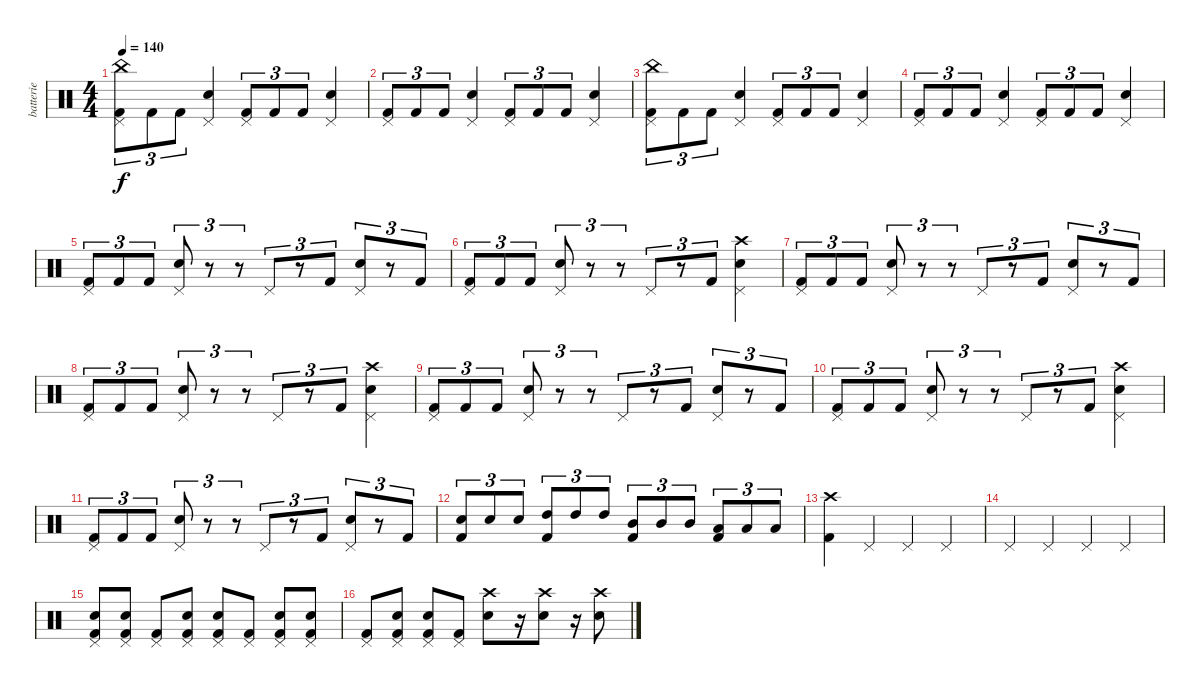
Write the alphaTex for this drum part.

\track ("batterie" "batterie") {instrument percussion}
\staff {score}
\articulation defaults
\ts (4 4)
\tempo 140
\clef neutral
\ks c
("China (hit)" "Kick (hit) 2" "Pedal Hi-Hat (hit)").8{tu (3 2) dy f} "Kick (hit) 2".8{tu (3 2)} "Kick (hit) 2".8{tu (3 2)} ("Snare (hit) 2" "Pedal Hi-Hat (hit)").4 ("Kick (hit) 2" "Pedal Hi-Hat (hit)").8{tu (3 2)} "Kick (hit) 2".8{tu (3 2)} "Kick (hit) 2".8{tu (3 2)} ("Snare (hit) 2" "Pedal Hi-Hat (hit)").4 |
("Kick (hit) 2" "Pedal Hi-Hat (hit)").8{tu (3 2)} "Kick (hit) 2".8{tu (3 2)} "Kick (hit) 2".8{tu (3 2)} ("Snare (hit) 2" "Pedal Hi-Hat (hit)").4 ("Kick (hit) 2" "Pedal Hi-Hat (hit)").8{tu (3 2)} "Kick (hit) 2".8{tu (3 2)} "Kick (hit) 2".8{tu (3 2)} ("Snare (hit) 2" "Pedal Hi-Hat (hit)").4 |
("China (hit)" "Kick (hit) 2" "Pedal Hi-Hat (hit)").8{tu (3 2)} "Kick (hit) 2".8{tu (3 2)} "Kick (hit) 2".8{tu (3 2)} ("Snare (hit) 2" "Pedal Hi-Hat (hit)").4 ("Kick (hit) 2" "Pedal Hi-Hat (hit)").8{tu (3 2)} "Kick (hit) 2".8{tu (3 2)} "Kick (hit) 2".8{tu (3 2)} ("Snare (hit) 2" "Pedal Hi-Hat (hit)").4 |
("Kick (hit) 2" "Pedal Hi-Hat (hit)").8{tu (3 2)} "Kick (hit) 2".8{tu (3 2)} "Kick (hit) 2".8{tu (3 2)} ("Snare (hit) 2" "Pedal Hi-Hat (hit)").4 ("Kick (hit) 2" "Pedal Hi-Hat (hit)").8{tu (3 2)} "Kick (hit) 2".8{tu (3 2)} "Kick (hit) 2".8{tu (3 2)} ("Snare (hit) 2" "Pedal Hi-Hat (hit)").4 |
("Kick (hit) 2" "Pedal Hi-Hat (hit)").8{tu (3 2)} "Kick (hit) 2".8{tu (3 2)} "Kick (hit) 2".8{tu (3 2)} ("Snare (hit) 2" "Pedal Hi-Hat (hit)").8{tu (3 2)} r.8{tu (3 2)} r.8{tu (3 2)} "Pedal Hi-Hat (hit)".8{tu (3 2)} r.8{tu (3 2)} "Kick (hit) 2".8{tu (3 2)} ("Snare (hit) 2" "Pedal Hi-Hat (hit)").8{tu (3 2)} r.8{tu (3 2)} "Kick (hit) 2".8{tu (3 2)} |
("Kick (hit) 2" "Pedal Hi-Hat (hit)").8{tu (3 2)} "Kick (hit) 2".8{tu (3 2)} "Kick (hit) 2".8{tu (3 2)} ("Snare (hit) 2" "Pedal Hi-Hat (hit)").8{tu (3 2)} r.8{tu (3 2)} r.8{tu (3 2)} "Pedal Hi-Hat (hit)".8{tu (3 2)} r.8{tu (3 2)} "Kick (hit) 2".8{tu (3 2)} ("Crash high (hit)" "Snare (hit) 2" "Pedal Hi-Hat (hit)").4 |
("Kick (hit) 2" "Pedal Hi-Hat (hit)").8{tu (3 2)} "Kick (hit) 2".8{tu (3 2)} "Kick (hit) 2".8{tu (3 2)} ("Snare (hit) 2" "Pedal Hi-Hat (hit)").8{tu (3 2)} r.8{tu (3 2)} r.8{tu (3 2)} "Pedal Hi-Hat (hit)".8{tu (3 2)} r.8{tu (3 2)} "Kick (hit) 2".8{tu (3 2)} ("Snare (hit) 2" "Pedal Hi-Hat (hit)").8{tu (3 2)} r.8{tu (3 2)} "Kick (hit) 2".8{tu (3 2)} |
("Kick (hit) 2" "Pedal Hi-Hat (hit)").8{tu (3 2)} "Kick (hit) 2".8{tu (3 2)} "Kick (hit) 2".8{tu (3 2)} ("Snare (hit) 2" "Pedal Hi-Hat (hit)").8{tu (3 2)} r.8{tu (3 2)} r.8{tu (3 2)} "Pedal Hi-Hat (hit)".8{tu (3 2)} r.8{tu (3 2)} "Kick (hit) 2".8{tu (3 2)} ("Crash high (hit)" "Snare (hit) 2" "Pedal Hi-Hat (hit)").4 |
("Kick (hit) 2" "Pedal Hi-Hat (hit)").8{tu (3 2)} "Kick (hit) 2".8{tu (3 2)} "Kick (hit) 2".8{tu (3 2)} ("Snare (hit) 2" "Pedal Hi-Hat (hit)").8{tu (3 2)} r.8{tu (3 2)} r.8{tu (3 2)} "Pedal Hi-Hat (hit)".8{tu (3 2)} r.8{tu (3 2)} "Kick (hit) 2".8{tu (3 2)} ("Snare (hit) 2" "Pedal Hi-Hat (hit)").8{tu (3 2)} r.8{tu (3 2)} "Kick (hit) 2".8{tu (3 2)} |
("Kick (hit) 2" "Pedal Hi-Hat (hit)").8{tu (3 2)} "Kick (hit) 2".8{tu (3 2)} "Kick (hit) 2".8{tu (3 2)} ("Snare (hit) 2" "Pedal Hi-Hat (hit)").8{tu (3 2)} r.8{tu (3 2)} r.8{tu (3 2)} "Pedal Hi-Hat (hit)".8{tu (3 2)} r.8{tu (3 2)} "Kick (hit) 2".8{tu (3 2)} ("Crash high (hit)" "Snare (hit) 2" "Pedal Hi-Hat (hit)").4 |
("Kick (hit) 2" "Pedal Hi-Hat (hit)").8{tu (3 2)} "Kick (hit) 2".8{tu (3 2)} "Kick (hit) 2".8{tu (3 2)} ("Snare (hit) 2" "Pedal Hi-Hat (hit)").8{tu (3 2)} r.8{tu (3 2)} r.8{tu (3 2)} "Pedal Hi-Hat (hit)".8{tu (3 2)} r.8{tu (3 2)} "Kick (hit) 2".8{tu (3 2)} ("Snare (hit) 2" "Pedal Hi-Hat (hit)").8{tu (3 2)} r.8{tu (3 2)} "Kick (hit) 2".8{tu (3 2)} |
("Snare (hit) 2" "Kick (hit) 2").8{tu (3 2)} "Snare (hit) 2".8{tu (3 2)} "Snare (hit) 2".8{tu (3 2)} ("High Tom (hit)" "Kick (hit) 2").8{tu (3 2)} "High Tom (hit)".8{tu (3 2)} "High Tom (hit)".8{tu (3 2)} ("Mid Tom (hit)" "Kick (hit) 2").8{tu (3 2)} "Mid Tom (hit)".8{tu (3 2)} "Mid Tom (hit)".8{tu (3 2)} ("Low Tom (hit)" "Kick (hit) 2").8{tu (3 2)} "Low Tom (hit)".8{tu (3 2)} "Low Tom (hit)".8{tu (3 2)} |
("Crash high (hit)" "Kick (hit) 2").4 "Pedal Hi-Hat (hit)".4 "Pedal Hi-Hat (hit)".4 "Pedal Hi-Hat (hit)".4 |
"Pedal Hi-Hat (hit)".4 "Pedal Hi-Hat (hit)".4 "Pedal Hi-Hat (hit)".4 "Pedal Hi-Hat (hit)".4 |
("Snare (hit) 2" "Kick (hit) 2" "Pedal Hi-Hat (hit)").8 ("Snare (hit) 2" "Kick (hit) 2" "Pedal Hi-Hat (hit)").8 ("Kick (hit) 2" "Pedal Hi-Hat (hit)").8 ("Snare (hit) 2" "Kick (hit) 2" "Pedal Hi-Hat (hit)").8 ("Snare (hit) 2" "Kick (hit) 2" "Pedal Hi-Hat (hit)").8 ("Kick (hit) 2" "Pedal Hi-Hat (hit)").8 ("Snare (hit) 2" "Kick (hit) 2" "Pedal Hi-Hat (hit)").8 ("Snare (hit) 2" "Kick (hit) 2" "Pedal Hi-Hat (hit)").8 |
("Kick (hit) 2" "Pedal Hi-Hat (hit)").8 ("Snare (hit) 2" "Kick (hit) 2" "Pedal Hi-Hat (hit)").8 ("Snare (hit) 2" "Kick (hit) 2" "Pedal Hi-Hat (hit)").8 ("Kick (hit) 2" "Pedal Hi-Hat (hit)").8 ("Crash high (hit)" "Snare (hit) 2").8 r.16 ("Crash high (hit)" "Snare (hit) 2").8 r.16 ("Crash high (hit)" "Snare (hit) 2").8
